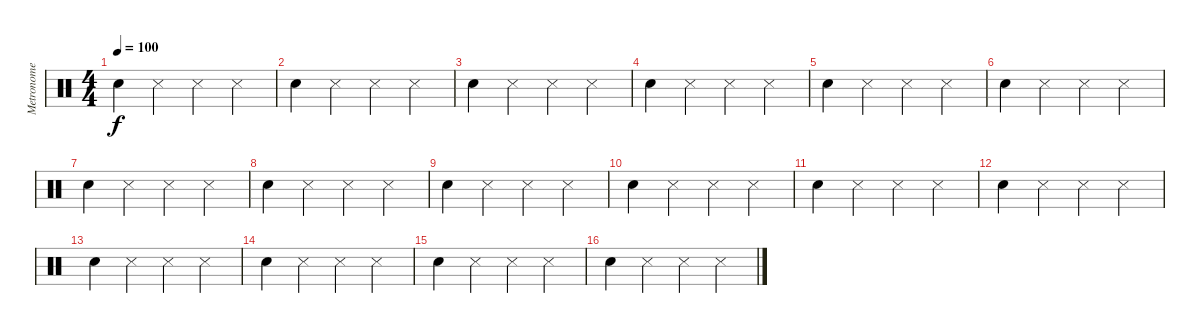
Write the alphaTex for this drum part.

\track ("Metronome" "Metronome") {instrument percussion}
\staff {score}
\articulation defaults
\ts (4 4)
\tempo 100
\clef neutral
\ks c "Metronome (bell)".4{dy f} "Metronome (hit)".4 "Metronome (hit)".4 "Metronome (hit)".4
|
"Metronome (bell)".4 "Metronome (hit)".4 "Metronome (hit)".4 "Metronome (hit)".4 |
"Metronome (bell)".4 "Metronome (hit)".4 "Metronome (hit)".4 "Metronome (hit)".4 |
"Metronome (bell)".4 "Metronome (hit)".4 "Metronome (hit)".4 "Metronome (hit)".4 |
"Metronome (bell)".4 "Metronome (hit)".4 "Metronome (hit)".4 "Metronome (hit)".4 |
"Metronome (bell)".4 "Metronome (hit)".4 "Metronome (hit)".4 "Metronome (hit)".4 |
"Metronome (bell)".4 "Metronome (hit)".4 "Metronome (hit)".4 "Metronome (hit)".4 |
"Metronome (bell)".4 "Metronome (hit)".4 "Metronome (hit)".4 "Metronome (hit)".4 |
"Metronome (bell)".4 "Metronome (hit)".4 "Metronome (hit)".4 "Metronome (hit)".4 |
"Metronome (bell)".4 "Metronome (hit)".4 "Metronome (hit)".4 "Metronome (hit)".4 |
"Metronome (bell)".4 "Metronome (hit)".4 "Metronome (hit)".4 "Metronome (hit)".4 |
"Metronome (bell)".4 "Metronome (hit)".4 "Metronome (hit)".4 "Metronome (hit)".4 |
"Metronome (bell)".4 "Metronome (hit)".4 "Metronome (hit)".4 "Metronome (hit)".4 |
"Metronome (bell)".4 "Metronome (hit)".4 "Metronome (hit)".4 "Metronome (hit)".4 |
"Metronome (bell)".4 "Metronome (hit)".4 "Metronome (hit)".4 "Metronome (hit)".4 |
"Metronome (bell)".4 "Metronome (hit)".4 "Metronome (hit)".4 "Metronome (hit)".4
